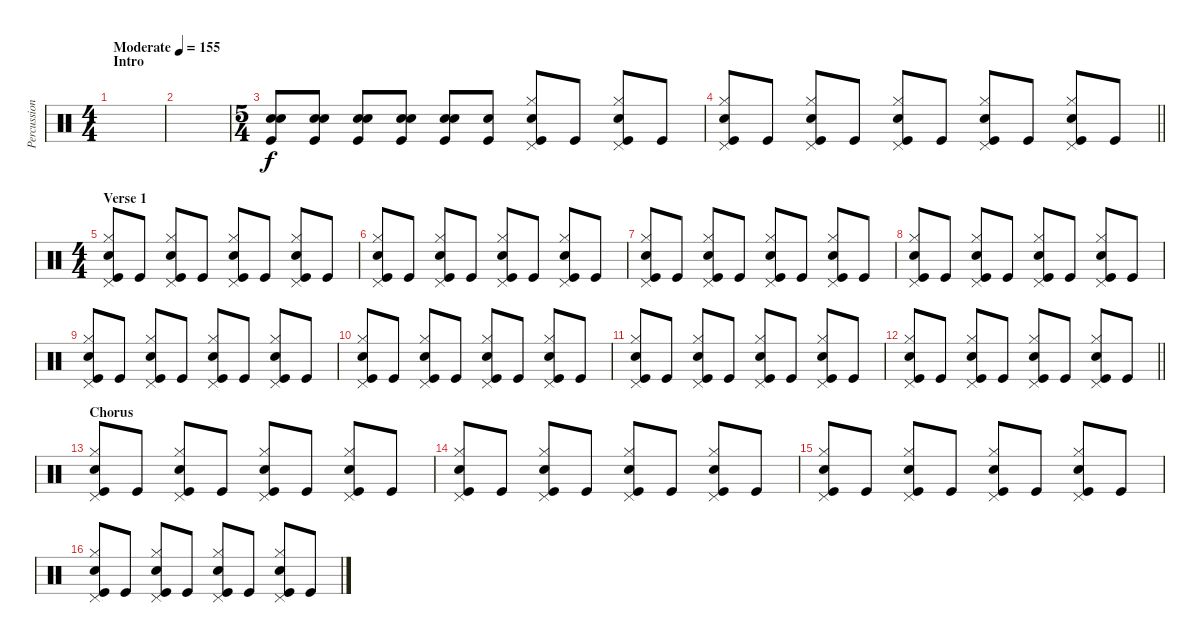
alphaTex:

\track ("Percussions" "Percussion") {instrument percussion}
\staff {score}
\articulation defaults
\ts (4 4)
\section ("" "Intro")
\tempo (155 "Moderate")
\clef neutral
\ks c
|
|
\ts (5 4)
("Snare (hit) 2" "Electric Snare (hit)" "Kick (hit)").8 ("Snare (hit) 2" "Electric Snare (hit)" "Kick (hit)").8 ("Snare (hit) 2" "Electric Snare (hit)" "Kick (hit)").8 ("Snare (hit) 2" "Electric Snare (hit)" "Kick (hit)").8 ("Snare (hit) 2" "Electric Snare (hit)" "Kick (hit)").8 ("Electric Snare (hit)" "Kick (hit)").8 ("Snare (hit) 2" "Hi-Hat (closed)" "Pedal Hi-Hat (hit)" "Kick (hit)").8 "Kick (hit)".8 ("Snare (hit) 2" "Hi-Hat (closed)" "Pedal Hi-Hat (hit)" "Kick (hit)").8 "Kick (hit)".8 |
\barLineRight lightlight
("Snare (hit) 2" "Hi-Hat (closed)" "Pedal Hi-Hat (hit)" "Kick (hit)").8 "Kick (hit)".8 ("Snare (hit) 2" "Hi-Hat (closed)" "Pedal Hi-Hat (hit)" "Kick (hit)").8 "Kick (hit)".8 ("Snare (hit) 2" "Hi-Hat (closed)" "Pedal Hi-Hat (hit)" "Kick (hit)").8 "Kick (hit)".8 ("Snare (hit) 2" "Hi-Hat (closed)" "Pedal Hi-Hat (hit)" "Kick (hit)").8 "Kick (hit)".8 ("Snare (hit) 2" "Hi-Hat (closed)" "Pedal Hi-Hat (hit)" "Kick (hit)").8 "Kick (hit)".8 |
\ts (4 4)
\section ("" "Verse 1")
("Snare (hit) 2" "Hi-Hat (closed)" "Pedal Hi-Hat (hit)" "Kick (hit)").8 "Kick (hit)".8 ("Snare (hit) 2" "Hi-Hat (closed)" "Pedal Hi-Hat (hit)" "Kick (hit)").8 "Kick (hit)".8 ("Snare (hit) 2" "Hi-Hat (closed)" "Pedal Hi-Hat (hit)" "Kick (hit)").8 "Kick (hit)".8 ("Snare (hit) 2" "Hi-Hat (closed)" "Pedal Hi-Hat (hit)" "Kick (hit)").8 "Kick (hit)".8 |
("Snare (hit) 2" "Hi-Hat (closed)" "Pedal Hi-Hat (hit)" "Kick (hit)").8 "Kick (hit)".8 ("Snare (hit) 2" "Hi-Hat (closed)" "Pedal Hi-Hat (hit)" "Kick (hit)").8 "Kick (hit)".8 ("Snare (hit) 2" "Hi-Hat (closed)" "Pedal Hi-Hat (hit)" "Kick (hit)").8 "Kick (hit)".8 ("Snare (hit) 2" "Hi-Hat (closed)" "Pedal Hi-Hat (hit)" "Kick (hit)").8 "Kick (hit)".8 |
("Snare (hit) 2" "Hi-Hat (closed)" "Pedal Hi-Hat (hit)" "Kick (hit)").8 "Kick (hit)".8 ("Snare (hit) 2" "Hi-Hat (closed)" "Pedal Hi-Hat (hit)" "Kick (hit)").8 "Kick (hit)".8 ("Snare (hit) 2" "Hi-Hat (closed)" "Pedal Hi-Hat (hit)" "Kick (hit)").8 "Kick (hit)".8 ("Snare (hit) 2" "Hi-Hat (closed)" "Pedal Hi-Hat (hit)" "Kick (hit)").8 "Kick (hit)".8 |
("Snare (hit) 2" "Hi-Hat (closed)" "Pedal Hi-Hat (hit)" "Kick (hit)").8 "Kick (hit)".8 ("Snare (hit) 2" "Hi-Hat (closed)" "Pedal Hi-Hat (hit)" "Kick (hit)").8 "Kick (hit)".8 ("Snare (hit) 2" "Hi-Hat (closed)" "Pedal Hi-Hat (hit)" "Kick (hit)").8 "Kick (hit)".8 ("Snare (hit) 2" "Hi-Hat (closed)" "Pedal Hi-Hat (hit)" "Kick (hit)").8 "Kick (hit)".8 |
("Snare (hit) 2" "Hi-Hat (closed)" "Pedal Hi-Hat (hit)" "Kick (hit)").8 "Kick (hit)".8 ("Snare (hit) 2" "Hi-Hat (closed)" "Pedal Hi-Hat (hit)" "Kick (hit)").8 "Kick (hit)".8 ("Snare (hit) 2" "Hi-Hat (closed)" "Pedal Hi-Hat (hit)" "Kick (hit)").8 "Kick (hit)".8 ("Snare (hit) 2" "Hi-Hat (closed)" "Pedal Hi-Hat (hit)" "Kick (hit)").8 "Kick (hit)".8 |
("Snare (hit) 2" "Hi-Hat (closed)" "Pedal Hi-Hat (hit)" "Kick (hit)").8 "Kick (hit)".8 ("Snare (hit) 2" "Hi-Hat (closed)" "Pedal Hi-Hat (hit)" "Kick (hit)").8 "Kick (hit)".8 ("Snare (hit) 2" "Hi-Hat (closed)" "Pedal Hi-Hat (hit)" "Kick (hit)").8 "Kick (hit)".8 ("Snare (hit) 2" "Hi-Hat (closed)" "Pedal Hi-Hat (hit)" "Kick (hit)").8 "Kick (hit)".8 |
("Snare (hit) 2" "Hi-Hat (closed)" "Pedal Hi-Hat (hit)" "Kick (hit)").8 "Kick (hit)".8 ("Snare (hit) 2" "Hi-Hat (closed)" "Pedal Hi-Hat (hit)" "Kick (hit)").8 "Kick (hit)".8 ("Snare (hit) 2" "Hi-Hat (closed)" "Pedal Hi-Hat (hit)" "Kick (hit)").8 "Kick (hit)".8 ("Snare (hit) 2" "Hi-Hat (closed)" "Pedal Hi-Hat (hit)" "Kick (hit)").8 "Kick (hit)".8 |
\barLineRight lightlight
("Snare (hit) 2" "Hi-Hat (closed)" "Pedal Hi-Hat (hit)" "Kick (hit)").8 "Kick (hit)".8 ("Snare (hit) 2" "Hi-Hat (closed)" "Pedal Hi-Hat (hit)" "Kick (hit)").8 "Kick (hit)".8 ("Snare (hit) 2" "Hi-Hat (closed)" "Pedal Hi-Hat (hit)" "Kick (hit)").8 "Kick (hit)".8 ("Snare (hit) 2" "Hi-Hat (closed)" "Pedal Hi-Hat (hit)" "Kick (hit)").8 "Kick (hit)".8 |
\section ("" "Chorus")
("Snare (hit) 2" "Hi-Hat (closed)" "Pedal Hi-Hat (hit)" "Kick (hit)").8 "Kick (hit)".8 ("Snare (hit) 2" "Hi-Hat (closed)" "Pedal Hi-Hat (hit)" "Kick (hit)").8 "Kick (hit)".8 ("Snare (hit) 2" "Hi-Hat (closed)" "Pedal Hi-Hat (hit)" "Kick (hit)").8 "Kick (hit)".8 ("Snare (hit) 2" "Hi-Hat (closed)" "Pedal Hi-Hat (hit)" "Kick (hit)").8 "Kick (hit)".8 |
("Snare (hit) 2" "Hi-Hat (closed)" "Pedal Hi-Hat (hit)" "Kick (hit)").8 "Kick (hit)".8 ("Snare (hit) 2" "Hi-Hat (closed)" "Pedal Hi-Hat (hit)" "Kick (hit)").8 "Kick (hit)".8 ("Snare (hit) 2" "Hi-Hat (closed)" "Pedal Hi-Hat (hit)" "Kick (hit)").8 "Kick (hit)".8 ("Snare (hit) 2" "Hi-Hat (closed)" "Pedal Hi-Hat (hit)" "Kick (hit)").8 "Kick (hit)".8 |
("Snare (hit) 2" "Hi-Hat (closed)" "Pedal Hi-Hat (hit)" "Kick (hit)").8 "Kick (hit)".8 ("Snare (hit) 2" "Hi-Hat (closed)" "Pedal Hi-Hat (hit)" "Kick (hit)").8 "Kick (hit)".8 ("Snare (hit) 2" "Hi-Hat (closed)" "Pedal Hi-Hat (hit)" "Kick (hit)").8 "Kick (hit)".8 ("Snare (hit) 2" "Hi-Hat (closed)" "Pedal Hi-Hat (hit)" "Kick (hit)").8 "Kick (hit)".8 |
("Snare (hit) 2" "Hi-Hat (closed)" "Pedal Hi-Hat (hit)" "Kick (hit)").8 "Kick (hit)".8 ("Snare (hit) 2" "Hi-Hat (closed)" "Pedal Hi-Hat (hit)" "Kick (hit)").8 "Kick (hit)".8 ("Snare (hit) 2" "Hi-Hat (closed)" "Pedal Hi-Hat (hit)" "Kick (hit)").8 "Kick (hit)".8 ("Snare (hit) 2" "Hi-Hat (closed)" "Pedal Hi-Hat (hit)" "Kick (hit)").8 "Kick (hit)".8
